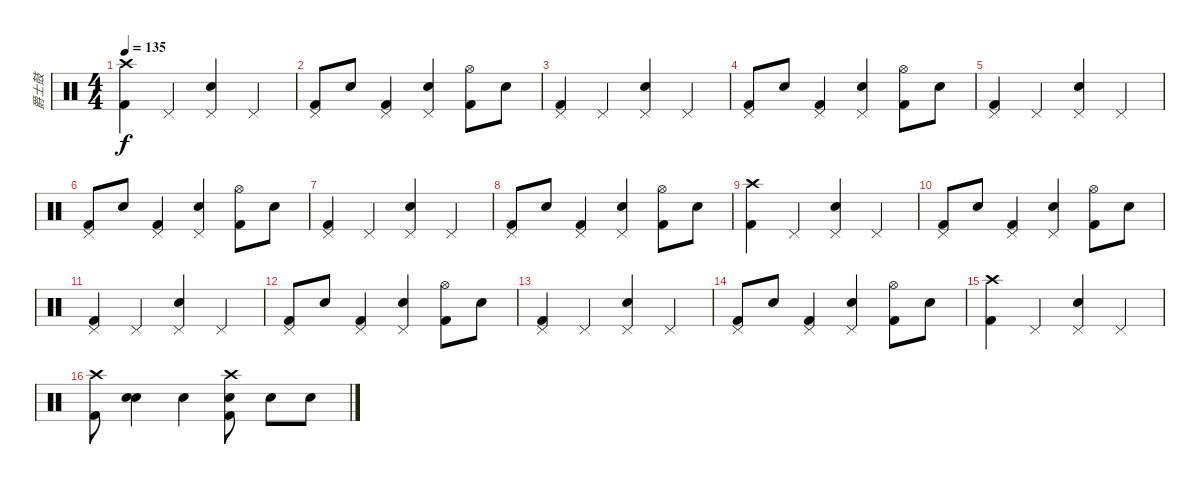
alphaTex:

\track ("爵士鼓" "爵士鼓") {instrument percussion}
\staff {score}
\articulation defaults
\ts (4 4)
\tempo 135
\clef neutral
\ks c
("Crash high (hit)" "Kick (hit) 2").4{dy f} "Pedal Hi-Hat (hit)".4 ("Pedal Hi-Hat (hit)" "Snare (hit) 2").4 "Pedal Hi-Hat (hit)".4 |
("Pedal Hi-Hat (hit)" "Kick (hit) 2").8 "Snare (hit) 2".8 ("Pedal Hi-Hat (hit)" "Kick (hit) 2").4 ("Pedal Hi-Hat (hit)" "Snare (hit) 2").4 ("Hi-Hat (open)" "Kick (hit) 2").8 "Snare (hit) 2".8 |
("Pedal Hi-Hat (hit)" "Kick (hit) 2").4 "Pedal Hi-Hat (hit)".4 ("Pedal Hi-Hat (hit)" "Snare (hit) 2").4 "Pedal Hi-Hat (hit)".4 |
("Pedal Hi-Hat (hit)" "Kick (hit) 2").8 "Snare (hit) 2".8 ("Pedal Hi-Hat (hit)" "Kick (hit) 2").4 ("Pedal Hi-Hat (hit)" "Snare (hit) 2").4 ("Hi-Hat (open)" "Kick (hit) 2").8 "Snare (hit) 2".8 |
("Pedal Hi-Hat (hit)" "Kick (hit) 2").4 "Pedal Hi-Hat (hit)".4 ("Pedal Hi-Hat (hit)" "Snare (hit) 2").4 "Pedal Hi-Hat (hit)".4 |
("Pedal Hi-Hat (hit)" "Kick (hit) 2").8 "Snare (hit) 2".8 ("Pedal Hi-Hat (hit)" "Kick (hit) 2").4 ("Pedal Hi-Hat (hit)" "Snare (hit) 2").4 ("Hi-Hat (open)" "Kick (hit) 2").8 "Snare (hit) 2".8 |
("Pedal Hi-Hat (hit)" "Kick (hit) 2").4 "Pedal Hi-Hat (hit)".4 ("Pedal Hi-Hat (hit)" "Snare (hit) 2").4 "Pedal Hi-Hat (hit)".4 |
("Pedal Hi-Hat (hit)" "Kick (hit) 2").8 "Snare (hit) 2".8 ("Pedal Hi-Hat (hit)" "Kick (hit) 2").4 ("Pedal Hi-Hat (hit)" "Snare (hit) 2").4 ("Hi-Hat (open)" "Kick (hit) 2").8 "Snare (hit) 2".8 |
("Crash high (hit)" "Kick (hit) 2").4 "Pedal Hi-Hat (hit)".4 ("Pedal Hi-Hat (hit)" "Snare (hit) 2").4 "Pedal Hi-Hat (hit)".4 |
("Pedal Hi-Hat (hit)" "Kick (hit) 2").8 "Snare (hit) 2".8 ("Pedal Hi-Hat (hit)" "Kick (hit) 2").4 ("Pedal Hi-Hat (hit)" "Snare (hit) 2").4 ("Hi-Hat (open)" "Kick (hit) 2").8 "Snare (hit) 2".8 |
("Pedal Hi-Hat (hit)" "Kick (hit) 2").4 "Pedal Hi-Hat (hit)".4 ("Pedal Hi-Hat (hit)" "Snare (hit) 2").4 "Pedal Hi-Hat (hit)".4 |
("Pedal Hi-Hat (hit)" "Kick (hit) 2").8 "Snare (hit) 2".8 ("Pedal Hi-Hat (hit)" "Kick (hit) 2").4 ("Pedal Hi-Hat (hit)" "Snare (hit) 2").4 ("Hi-Hat (open)" "Kick (hit) 2").8 "Snare (hit) 2".8 |
("Pedal Hi-Hat (hit)" "Kick (hit) 2").4 "Pedal Hi-Hat (hit)".4 ("Pedal Hi-Hat (hit)" "Snare (hit) 2").4 "Pedal Hi-Hat (hit)".4 |
("Pedal Hi-Hat (hit)" "Kick (hit) 2").8 "Snare (hit) 2".8 ("Pedal Hi-Hat (hit)" "Kick (hit) 2").4 ("Pedal Hi-Hat (hit)" "Snare (hit) 2").4 ("Hi-Hat (open)" "Kick (hit) 2").8 "Snare (hit) 2".8 |
("Crash high (hit)" "Kick (hit) 2").4 "Pedal Hi-Hat (hit)".4 ("Pedal Hi-Hat (hit)" "Snare (hit) 2").4 "Pedal Hi-Hat (hit)".4 |
("Crash high (hit)" "Kick (hit) 2").8 ("Snare (hit) 2" "Electric Snare (hit)").4 "Snare (hit) 2".4 ("Crash high (hit)" "Snare (hit) 2" "Kick (hit) 2").8 "Electric Snare (hit)".8 "Electric Snare (hit)".8
